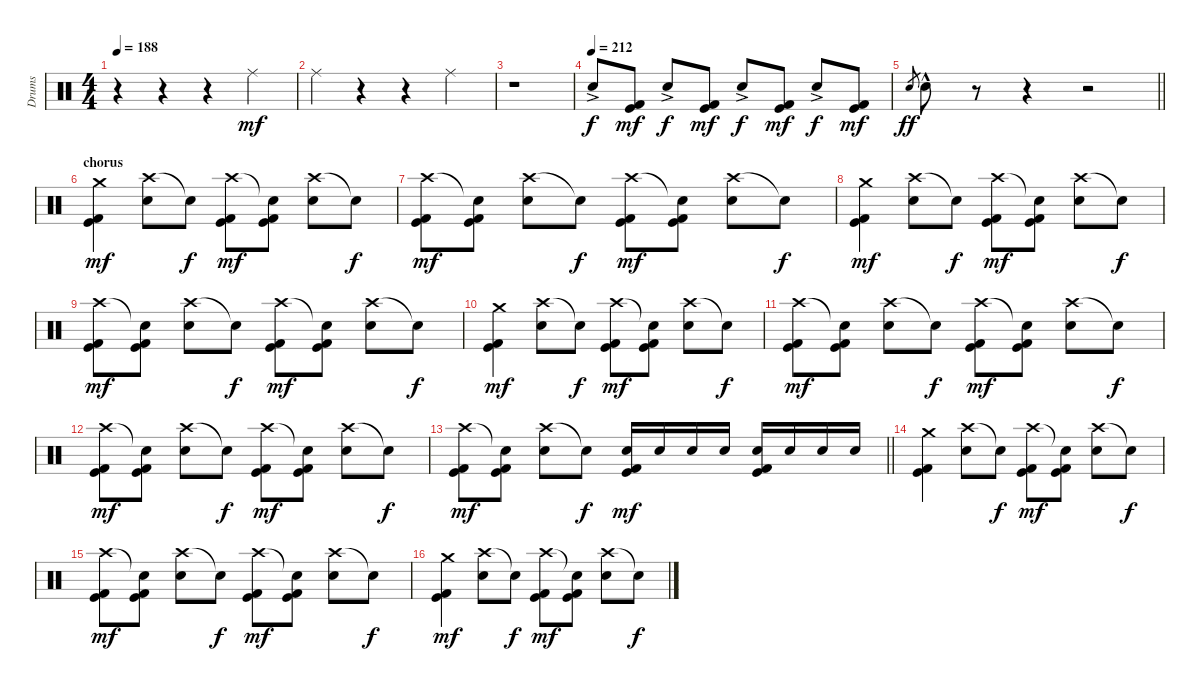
\track ("Drums" "Drums") {instrument percussion}
\staff {score}
\articulation defaults
\ts (4 4)
\tempo 188
\clef neutral
\ks c
r.4{dy mf} r.4 r.4 "Ride (middle)".4 |
"Ride (middle)".4 r.4 r.4 "Ride (middle)".4 |
r.1 |
\tempo (212)
"Snare (hit) 2"{ac}.8{dy f} ("Kick (hit)" "Kick (hit) 2").8{dy mf} "Snare (hit) 2"{ac}.8{dy f} ("Kick (hit)" "Kick (hit) 2").8{dy mf} "Snare (hit) 2"{ac}.8{dy f} ("Kick (hit)" "Kick (hit) 2").8{dy mf} "Snare (hit) 2"{ac}.8{dy f} ("Kick (hit)" "Kick (hit) 2").8{dy mf} |
\barLineRight lightlight "Snare (hit) 2".8{gr dy ff} "Snare (hit) 2"{hac}.8
r.8 r.4 r.2 |
\section ("" "chorus")
("Crash medium (hit)" "Kick (hit)" "Kick (hit) 2").4{dy mf} ("Crash high (hit)" "Snare (hit) 2").8 "Snare (hit)"{t}.8{dy f} ("Crash high (hit)" "Kick (hit)" "Kick (hit) 2").8{dy mf} ("Snare (hit)"{t} "Kick (hit)" "Kick (hit) 2").8 ("Crash high (hit)" "Snare (hit) 2").8 "Snare (hit)"{t}.8{dy f} |
("Crash high (hit)" "Kick (hit)" "Kick (hit) 2").8{dy mf} ("Snare (hit)"{t} "Kick (hit)" "Kick (hit) 2").8 ("Crash high (hit)" "Snare (hit) 2").8 "Snare (hit)"{t}.8{dy f} ("Crash high (hit)" "Kick (hit)" "Kick (hit) 2").8{dy mf} ("Snare (hit)"{t} "Kick (hit)" "Kick (hit) 2").8 ("Crash high (hit)" "Snare (hit) 2").8 "Snare (hit)"{t}.8{dy f} |
("Crash medium (hit)" "Kick (hit)" "Kick (hit) 2").4{dy mf} ("Crash high (hit)" "Snare (hit) 2").8 "Snare (hit)"{t}.8{dy f} ("Crash high (hit)" "Kick (hit)" "Kick (hit) 2").8{dy mf} ("Snare (hit)"{t} "Kick (hit)" "Kick (hit) 2").8 ("Crash high (hit)" "Snare (hit) 2").8 "Snare (hit)"{t}.8{dy f} |
("Crash high (hit)" "Kick (hit)" "Kick (hit) 2").8{dy mf} ("Snare (hit)"{t} "Kick (hit)" "Kick (hit) 2").8 ("Crash high (hit)" "Snare (hit) 2").8 "Snare (hit)"{t}.8{dy f} ("Crash high (hit)" "Kick (hit)" "Kick (hit) 2").8{dy mf} ("Snare (hit)"{t} "Kick (hit)" "Kick (hit) 2").8 ("Crash high (hit)" "Snare (hit) 2").8 "Snare (hit)"{t}.8{dy f} |
("Crash medium (hit)" "Kick (hit)" "Kick (hit) 2").4{dy mf} ("Crash high (hit)" "Snare (hit) 2").8 "Snare (hit)"{t}.8{dy f} ("Crash high (hit)" "Kick (hit)" "Kick (hit) 2").8{dy mf} ("Snare (hit)"{t} "Kick (hit)" "Kick (hit) 2").8 ("Crash high (hit)" "Snare (hit) 2").8 "Snare (hit)"{t}.8{dy f} |
("Crash high (hit)" "Kick (hit)" "Kick (hit) 2").8{dy mf} ("Snare (hit)"{t} "Kick (hit)" "Kick (hit) 2").8 ("Crash high (hit)" "Snare (hit) 2").8 "Snare (hit)"{t}.8{dy f} ("Crash high (hit)" "Kick (hit)" "Kick (hit) 2").8{dy mf} ("Snare (hit)"{t} "Kick (hit)" "Kick (hit) 2").8 ("Crash high (hit)" "Snare (hit) 2").8 "Snare (hit)"{t}.8{dy f} |
("Crash high (hit)" "Kick (hit)" "Kick (hit) 2").8{dy mf} ("Snare (hit)"{t} "Kick (hit)" "Kick (hit) 2").8 ("Crash high (hit)" "Snare (hit) 2").8 "Snare (hit)"{t}.8{dy f} ("Crash high (hit)" "Kick (hit)" "Kick (hit) 2").8{dy mf} ("Snare (hit)"{t} "Kick (hit)" "Kick (hit) 2").8 ("Crash high (hit)" "Snare (hit) 2").8 "Snare (hit)"{t}.8{dy f} |
\barLineRight lightlight
("Crash high (hit)" "Kick (hit)" "Kick (hit) 2").8{dy mf} ("Snare (hit)"{t} "Kick (hit)" "Kick (hit) 2").8 ("Crash high (hit)" "Snare (hit) 2").8 "Snare (hit)"{t}.8{dy f} ("Snare (hit) 2" "Kick (hit)" "Kick (hit) 2").16{dy mf} "Snare (hit) 2".16 "Snare (hit) 2".16 "Snare (hit) 2".16 ("Snare (hit) 2" "Kick (hit)" "Kick (hit) 2").16 "Snare (hit) 2".16 "Snare (hit) 2".16 "Snare (hit) 2".16 |
("Crash medium (hit)" "Kick (hit)" "Kick (hit) 2").4 ("Crash high (hit)" "Snare (hit) 2").8 "Snare (hit)"{t}.8{dy f} ("Crash high (hit)" "Kick (hit)" "Kick (hit) 2").8{dy mf} ("Snare (hit)"{t} "Kick (hit)" "Kick (hit) 2").8 ("Crash high (hit)" "Snare (hit) 2").8 "Snare (hit)"{t}.8{dy f} |
("Crash high (hit)" "Kick (hit)" "Kick (hit) 2").8{dy mf} ("Snare (hit)"{t} "Kick (hit)" "Kick (hit) 2").8 ("Crash high (hit)" "Snare (hit) 2").8 "Snare (hit)"{t}.8{dy f} ("Crash high (hit)" "Kick (hit)" "Kick (hit) 2").8{dy mf} ("Snare (hit)"{t} "Kick (hit)" "Kick (hit) 2").8 ("Crash high (hit)" "Snare (hit) 2").8 "Snare (hit)"{t}.8{dy f} |
("Crash medium (hit)" "Kick (hit)" "Kick (hit) 2").4{dy mf} ("Crash high (hit)" "Snare (hit) 2").8 "Snare (hit)"{t}.8{dy f} ("Crash high (hit)" "Kick (hit)" "Kick (hit) 2").8{dy mf} ("Snare (hit)"{t} "Kick (hit)" "Kick (hit) 2").8 ("Crash high (hit)" "Snare (hit) 2").8 "Snare (hit)"{t}.8{dy f}
